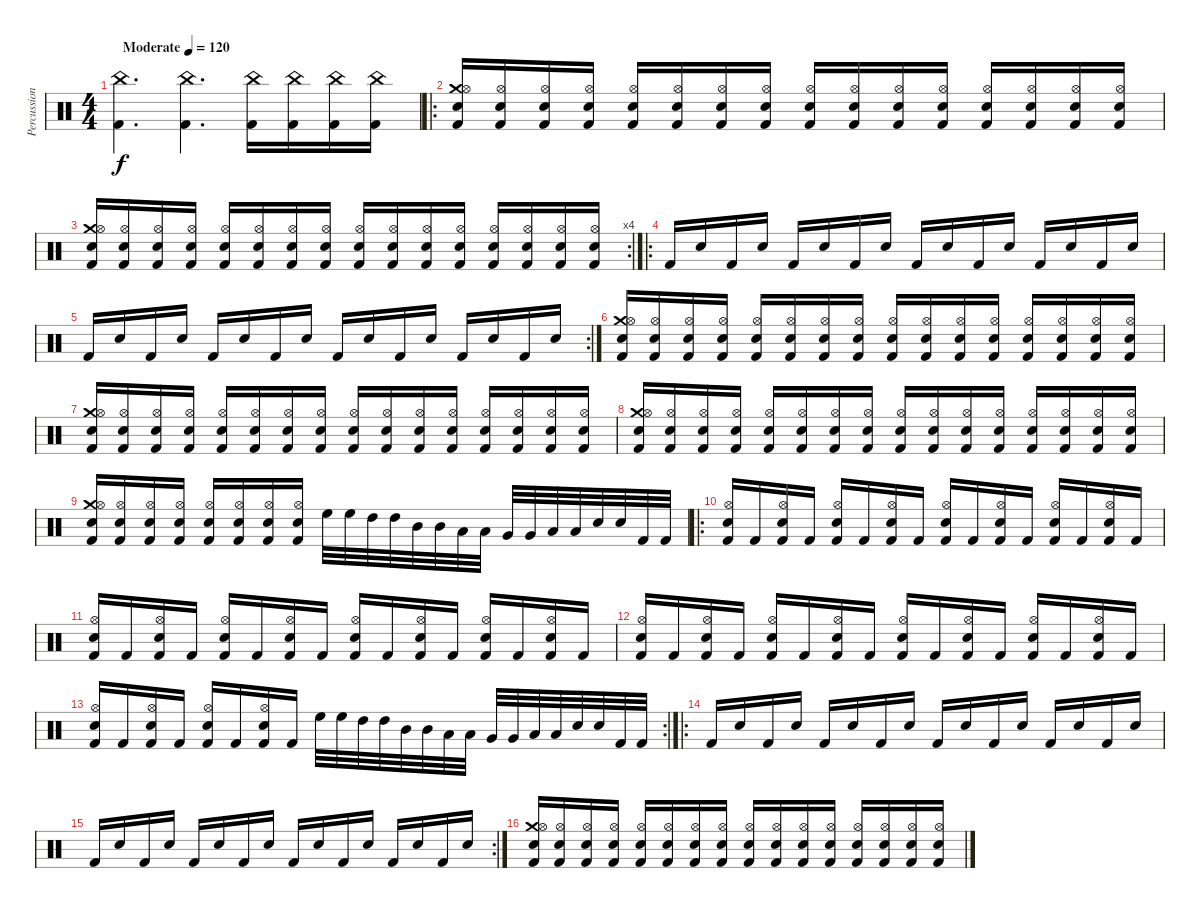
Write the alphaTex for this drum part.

\track ("Percussions" "Percussion") {instrument percussion}
\staff {score}
\articulation defaults
\ts (4 4)
\tempo (120 "Moderate")
\clef neutral
\ks c
("China (hit)" "Kick (hit) 2").4{d dy f} ("China (hit)" "Kick (hit) 2").4{d} ("China (hit)" "Kick (hit) 2").16 ("China (hit)" "Kick (hit) 2").16 ("China (hit)" "Kick (hit) 2").16 ("China (hit)" "Kick (hit) 2").16 |
\ro
("Crash medium (hit)" "Hi-Hat (open)" "Electric Snare (hit)" "Kick (hit) 2").16 ("Hi-Hat (open)" "Electric Snare (hit)" "Kick (hit) 2").16 ("Hi-Hat (open)" "Electric Snare (hit)" "Kick (hit) 2").16 ("Hi-Hat (open)" "Electric Snare (hit)" "Kick (hit) 2").16 ("Hi-Hat (open)" "Electric Snare (hit)" "Kick (hit) 2").16 ("Hi-Hat (open)" "Electric Snare (hit)" "Kick (hit) 2").16 ("Hi-Hat (open)" "Electric Snare (hit)" "Kick (hit) 2").16 ("Hi-Hat (open)" "Electric Snare (hit)" "Kick (hit) 2").16 ("Hi-Hat (open)" "Electric Snare (hit)" "Kick (hit) 2").16 ("Hi-Hat (open)" "Electric Snare (hit)" "Kick (hit) 2").16 ("Hi-Hat (open)" "Electric Snare (hit)" "Kick (hit) 2").16 ("Hi-Hat (open)" "Electric Snare (hit)" "Kick (hit) 2").16 ("Hi-Hat (open)" "Electric Snare (hit)" "Kick (hit) 2").16 ("Hi-Hat (open)" "Electric Snare (hit)" "Kick (hit) 2").16 ("Hi-Hat (open)" "Electric Snare (hit)" "Kick (hit) 2").16 ("Hi-Hat (open)" "Electric Snare (hit)" "Kick (hit) 2").16 |
\rc 4
("Crash medium (hit)" "Hi-Hat (open)" "Electric Snare (hit)" "Kick (hit) 2").16 ("Hi-Hat (open)" "Electric Snare (hit)" "Kick (hit) 2").16 ("Hi-Hat (open)" "Electric Snare (hit)" "Kick (hit) 2").16 ("Hi-Hat (open)" "Electric Snare (hit)" "Kick (hit) 2").16 ("Hi-Hat (open)" "Electric Snare (hit)" "Kick (hit) 2").16 ("Hi-Hat (open)" "Electric Snare (hit)" "Kick (hit) 2").16 ("Hi-Hat (open)" "Electric Snare (hit)" "Kick (hit) 2").16 ("Hi-Hat (open)" "Electric Snare (hit)" "Kick (hit) 2").16 ("Hi-Hat (open)" "Electric Snare (hit)" "Kick (hit) 2").16 ("Hi-Hat (open)" "Electric Snare (hit)" "Kick (hit) 2").16 ("Hi-Hat (open)" "Electric Snare (hit)" "Kick (hit) 2").16 ("Hi-Hat (open)" "Electric Snare (hit)" "Kick (hit) 2").16 ("Hi-Hat (open)" "Electric Snare (hit)" "Kick (hit) 2").16 ("Hi-Hat (open)" "Electric Snare (hit)" "Kick (hit) 2").16 ("Hi-Hat (open)" "Electric Snare (hit)" "Kick (hit) 2").16 ("Hi-Hat (open)" "Electric Snare (hit)" "Kick (hit) 2").16 |
\ro "Kick (hit) 2".16 "Electric Snare (hit)".16 "Kick (hit) 2".16 "Electric Snare (hit)".16 "Kick (hit) 2".16 "Electric Snare (hit)".16 "Kick (hit) 2".16 "Electric Snare (hit)".16 "Kick (hit) 2".16 "Electric Snare (hit)".16 "Kick (hit) 2".16 "Electric Snare (hit)".16 "Kick (hit) 2".16 "Electric Snare (hit)".16 "Kick (hit) 2".16 "Electric Snare (hit)".16
|
\rc 2 "Kick (hit) 2".16 "Electric Snare (hit)".16 "Kick (hit) 2".16 "Electric Snare (hit)".16 "Kick (hit) 2".16 "Electric Snare (hit)".16 "Kick (hit) 2".16 "Electric Snare (hit)".16 "Kick (hit) 2".16 "Electric Snare (hit)".16 "Kick (hit) 2".16 "Electric Snare (hit)".16 "Kick (hit) 2".16 "Electric Snare (hit)".16 "Kick (hit) 2".16 "Electric Snare (hit)".16
|
("Crash medium (hit)" "Hi-Hat (open)" "Electric Snare (hit)" "Kick (hit) 2").16 ("Hi-Hat (open)" "Electric Snare (hit)" "Kick (hit) 2").16 ("Hi-Hat (open)" "Electric Snare (hit)" "Kick (hit) 2").16 ("Hi-Hat (open)" "Electric Snare (hit)" "Kick (hit) 2").16 ("Hi-Hat (open)" "Electric Snare (hit)" "Kick (hit) 2").16 ("Hi-Hat (open)" "Electric Snare (hit)" "Kick (hit) 2").16 ("Hi-Hat (open)" "Electric Snare (hit)" "Kick (hit) 2").16 ("Hi-Hat (open)" "Electric Snare (hit)" "Kick (hit) 2").16 ("Hi-Hat (open)" "Electric Snare (hit)" "Kick (hit) 2").16 ("Hi-Hat (open)" "Electric Snare (hit)" "Kick (hit) 2").16 ("Hi-Hat (open)" "Electric Snare (hit)" "Kick (hit) 2").16 ("Hi-Hat (open)" "Electric Snare (hit)" "Kick (hit) 2").16 ("Hi-Hat (open)" "Electric Snare (hit)" "Kick (hit) 2").16 ("Hi-Hat (open)" "Electric Snare (hit)" "Kick (hit) 2").16 ("Hi-Hat (open)" "Electric Snare (hit)" "Kick (hit) 2").16 ("Hi-Hat (open)" "Electric Snare (hit)" "Kick (hit) 2").16 |
("Crash medium (hit)" "Hi-Hat (open)" "Electric Snare (hit)" "Kick (hit) 2").16 ("Hi-Hat (open)" "Electric Snare (hit)" "Kick (hit) 2").16 ("Hi-Hat (open)" "Electric Snare (hit)" "Kick (hit) 2").16 ("Hi-Hat (open)" "Electric Snare (hit)" "Kick (hit) 2").16 ("Hi-Hat (open)" "Electric Snare (hit)" "Kick (hit) 2").16 ("Hi-Hat (open)" "Electric Snare (hit)" "Kick (hit) 2").16 ("Hi-Hat (open)" "Electric Snare (hit)" "Kick (hit) 2").16 ("Hi-Hat (open)" "Electric Snare (hit)" "Kick (hit) 2").16 ("Hi-Hat (open)" "Electric Snare (hit)" "Kick (hit) 2").16 ("Hi-Hat (open)" "Electric Snare (hit)" "Kick (hit) 2").16 ("Hi-Hat (open)" "Electric Snare (hit)" "Kick (hit) 2").16 ("Hi-Hat (open)" "Electric Snare (hit)" "Kick (hit) 2").16 ("Hi-Hat (open)" "Electric Snare (hit)" "Kick (hit) 2").16 ("Hi-Hat (open)" "Electric Snare (hit)" "Kick (hit) 2").16 ("Hi-Hat (open)" "Electric Snare (hit)" "Kick (hit) 2").16 ("Hi-Hat (open)" "Electric Snare (hit)" "Kick (hit) 2").16 |
("Crash medium (hit)" "Hi-Hat (open)" "Electric Snare (hit)" "Kick (hit) 2").16 ("Hi-Hat (open)" "Electric Snare (hit)" "Kick (hit) 2").16 ("Hi-Hat (open)" "Electric Snare (hit)" "Kick (hit) 2").16 ("Hi-Hat (open)" "Electric Snare (hit)" "Kick (hit) 2").16 ("Hi-Hat (open)" "Electric Snare (hit)" "Kick (hit) 2").16 ("Hi-Hat (open)" "Electric Snare (hit)" "Kick (hit) 2").16 ("Hi-Hat (open)" "Electric Snare (hit)" "Kick (hit) 2").16 ("Hi-Hat (open)" "Electric Snare (hit)" "Kick (hit) 2").16 ("Hi-Hat (open)" "Electric Snare (hit)" "Kick (hit) 2").16 ("Hi-Hat (open)" "Electric Snare (hit)" "Kick (hit) 2").16 ("Hi-Hat (open)" "Electric Snare (hit)" "Kick (hit) 2").16 ("Hi-Hat (open)" "Electric Snare (hit)" "Kick (hit) 2").16 ("Hi-Hat (open)" "Electric Snare (hit)" "Kick (hit) 2").16 ("Hi-Hat (open)" "Electric Snare (hit)" "Kick (hit) 2").16 ("Hi-Hat (open)" "Electric Snare (hit)" "Kick (hit) 2").16 ("Hi-Hat (open)" "Electric Snare (hit)" "Kick (hit) 2").16 |
("Crash medium (hit)" "Hi-Hat (open)" "Electric Snare (hit)" "Kick (hit) 2").16 ("Hi-Hat (open)" "Electric Snare (hit)" "Kick (hit) 2").16 ("Hi-Hat (open)" "Electric Snare (hit)" "Kick (hit) 2").16 ("Hi-Hat (open)" "Electric Snare (hit)" "Kick (hit) 2").16 ("Hi-Hat (open)" "Electric Snare (hit)" "Kick (hit) 2").16 ("Hi-Hat (open)" "Electric Snare (hit)" "Kick (hit) 2").16 ("Hi-Hat (open)" "Electric Snare (hit)" "Kick (hit) 2").16 ("Hi-Hat (open)" "Electric Snare (hit)" "Kick (hit) 2").16 "High Floor Tom (hit)".32 "High Floor Tom (hit)".32 "High Tom (hit)".32 "High Tom (hit)".32 "Mid Tom (hit)".32 "Mid Tom (hit)".32 "Low Tom (hit)".32 "Low Tom (hit)".32 "Very Low Tom (hit)".32 "Very Low Tom (hit)".32 "Low Floor Tom (hit)".32 "Low Floor Tom (hit)".32 "Electric Snare (hit)".32 "Electric Snare (hit)".32 "Kick (hit) 2".32 "Kick (hit) 2".32 |
\ro
("Hi-Hat (open)" "Electric Snare (hit)" "Kick (hit) 2").16 "Kick (hit) 2".16 ("Hi-Hat (open)" "Electric Snare (hit)" "Kick (hit) 2").16 "Kick (hit) 2".16 ("Hi-Hat (open)" "Electric Snare (hit)" "Kick (hit) 2").16 "Kick (hit) 2".16 ("Hi-Hat (open)" "Electric Snare (hit)" "Kick (hit) 2").16 "Kick (hit) 2".16 ("Hi-Hat (open)" "Electric Snare (hit)" "Kick (hit) 2").16 "Kick (hit) 2".16 ("Hi-Hat (open)" "Electric Snare (hit)" "Kick (hit) 2").16 "Kick (hit) 2".16 ("Hi-Hat (open)" "Electric Snare (hit)" "Kick (hit) 2").16 "Kick (hit) 2".16 ("Hi-Hat (open)" "Electric Snare (hit)" "Kick (hit) 2").16 "Kick (hit) 2".16 |
("Hi-Hat (open)" "Electric Snare (hit)" "Kick (hit) 2").16 "Kick (hit) 2".16 ("Hi-Hat (open)" "Electric Snare (hit)" "Kick (hit) 2").16 "Kick (hit) 2".16 ("Hi-Hat (open)" "Electric Snare (hit)" "Kick (hit) 2").16 "Kick (hit) 2".16 ("Hi-Hat (open)" "Electric Snare (hit)" "Kick (hit) 2").16 "Kick (hit) 2".16 ("Hi-Hat (open)" "Electric Snare (hit)" "Kick (hit) 2").16 "Kick (hit) 2".16 ("Hi-Hat (open)" "Electric Snare (hit)" "Kick (hit) 2").16 "Kick (hit) 2".16 ("Hi-Hat (open)" "Electric Snare (hit)" "Kick (hit) 2").16 "Kick (hit) 2".16 ("Hi-Hat (open)" "Electric Snare (hit)" "Kick (hit) 2").16 "Kick (hit) 2".16 |
("Hi-Hat (open)" "Electric Snare (hit)" "Kick (hit) 2").16 "Kick (hit) 2".16 ("Hi-Hat (open)" "Electric Snare (hit)" "Kick (hit) 2").16 "Kick (hit) 2".16 ("Hi-Hat (open)" "Electric Snare (hit)" "Kick (hit) 2").16 "Kick (hit) 2".16 ("Hi-Hat (open)" "Electric Snare (hit)" "Kick (hit) 2").16 "Kick (hit) 2".16 ("Hi-Hat (open)" "Electric Snare (hit)" "Kick (hit) 2").16 "Kick (hit) 2".16 ("Hi-Hat (open)" "Electric Snare (hit)" "Kick (hit) 2").16 "Kick (hit) 2".16 ("Hi-Hat (open)" "Electric Snare (hit)" "Kick (hit) 2").16 "Kick (hit) 2".16 ("Hi-Hat (open)" "Electric Snare (hit)" "Kick (hit) 2").16 "Kick (hit) 2".16 |
\rc 2
("Hi-Hat (open)" "Electric Snare (hit)" "Kick (hit) 2").16 "Kick (hit) 2".16 ("Hi-Hat (open)" "Electric Snare (hit)" "Kick (hit) 2").16 "Kick (hit) 2".16 ("Hi-Hat (open)" "Electric Snare (hit)" "Kick (hit) 2").16 "Kick (hit) 2".16 ("Hi-Hat (open)" "Electric Snare (hit)" "Kick (hit) 2").16 "Kick (hit) 2".16 "High Floor Tom (hit)".32 "High Floor Tom (hit)".32 "High Tom (hit)".32 "High Tom (hit)".32 "Mid Tom (hit)".32 "Mid Tom (hit)".32 "Low Tom (hit)".32 "Low Tom (hit)".32 "Very Low Tom (hit)".32 "Very Low Tom (hit)".32 "Low Floor Tom (hit)".32 "Low Floor Tom (hit)".32 "Electric Snare (hit)".32 "Electric Snare (hit)".32 "Kick (hit) 2".32 "Kick (hit) 2".32 |
\ro "Kick (hit) 2".16 "Electric Snare (hit)".16 "Kick (hit) 2".16 "Electric Snare (hit)".16 "Kick (hit) 2".16 "Electric Snare (hit)".16 "Kick (hit) 2".16 "Electric Snare (hit)".16 "Kick (hit) 2".16 "Electric Snare (hit)".16 "Kick (hit) 2".16 "Electric Snare (hit)".16 "Kick (hit) 2".16 "Electric Snare (hit)".16 "Kick (hit) 2".16 "Electric Snare (hit)".16
|
\rc 2 "Kick (hit) 2".16 "Electric Snare (hit)".16 "Kick (hit) 2".16 "Electric Snare (hit)".16 "Kick (hit) 2".16 "Electric Snare (hit)".16 "Kick (hit) 2".16 "Electric Snare (hit)".16 "Kick (hit) 2".16 "Electric Snare (hit)".16 "Kick (hit) 2".16 "Electric Snare (hit)".16 "Kick (hit) 2".16 "Electric Snare (hit)".16 "Kick (hit) 2".16 "Electric Snare (hit)".16
|
("Crash medium (hit)" "Hi-Hat (open)" "Electric Snare (hit)" "Kick (hit) 2").16 ("Hi-Hat (open)" "Electric Snare (hit)" "Kick (hit) 2").16 ("Hi-Hat (open)" "Electric Snare (hit)" "Kick (hit) 2").16 ("Hi-Hat (open)" "Electric Snare (hit)" "Kick (hit) 2").16 ("Hi-Hat (open)" "Electric Snare (hit)" "Kick (hit) 2").16 ("Hi-Hat (open)" "Electric Snare (hit)" "Kick (hit) 2").16 ("Hi-Hat (open)" "Electric Snare (hit)" "Kick (hit) 2").16 ("Hi-Hat (open)" "Electric Snare (hit)" "Kick (hit) 2").16 ("Hi-Hat (open)" "Electric Snare (hit)" "Kick (hit) 2").16 ("Hi-Hat (open)" "Electric Snare (hit)" "Kick (hit) 2").16 ("Hi-Hat (open)" "Electric Snare (hit)" "Kick (hit) 2").16 ("Hi-Hat (open)" "Electric Snare (hit)" "Kick (hit) 2").16 ("Hi-Hat (open)" "Electric Snare (hit)" "Kick (hit) 2").16 ("Hi-Hat (open)" "Electric Snare (hit)" "Kick (hit) 2").16 ("Hi-Hat (open)" "Electric Snare (hit)" "Kick (hit) 2").16 ("Hi-Hat (open)" "Electric Snare (hit)" "Kick (hit) 2").16
